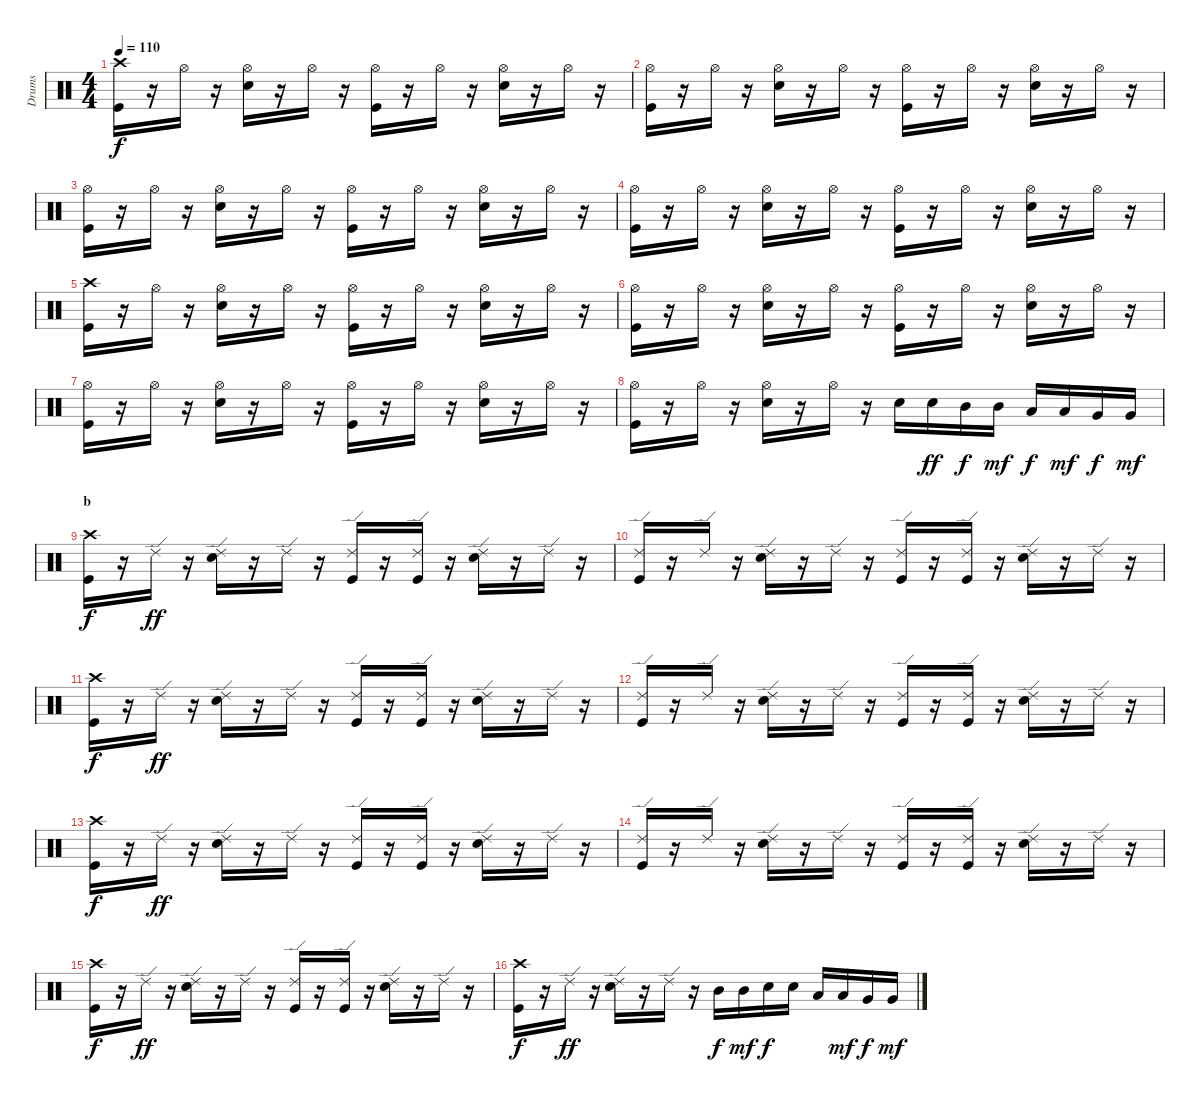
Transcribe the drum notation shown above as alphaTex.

\track ("Drums" "Drums") {instrument percussion}
\staff {score}
\articulation defaults
\ts (4 4)
\tempo 110
\clef neutral
\ks c
("Crash high (hit)" "Kick (hit)").16{dy f} r.16 "Hi-Hat (open)".16 r.16 ("Hi-Hat (open)" "Snare (hit) 2").16 r.16 "Hi-Hat (open)".16 r.16 ("Hi-Hat (open)" "Kick (hit)").16 r.16 "Hi-Hat (open)".16 r.16 ("Hi-Hat (open)" "Snare (hit) 2").16 r.16 "Hi-Hat (open)".16 r.16 |
("Hi-Hat (open)" "Kick (hit)").16 r.16 "Hi-Hat (open)".16 r.16 ("Hi-Hat (open)" "Snare (hit) 2").16 r.16 "Hi-Hat (open)".16 r.16 ("Hi-Hat (open)" "Kick (hit)").16 r.16 "Hi-Hat (open)".16 r.16 ("Hi-Hat (open)" "Snare (hit) 2").16 r.16 "Hi-Hat (open)".16 r.16 |
("Hi-Hat (open)" "Kick (hit)").16 r.16 "Hi-Hat (open)".16 r.16 ("Hi-Hat (open)" "Snare (hit) 2").16 r.16 "Hi-Hat (open)".16 r.16 ("Hi-Hat (open)" "Kick (hit)").16 r.16 "Hi-Hat (open)".16 r.16 ("Hi-Hat (open)" "Snare (hit) 2").16 r.16 "Hi-Hat (open)".16 r.16 |
("Hi-Hat (open)" "Kick (hit)").16 r.16 "Hi-Hat (open)".16 r.16 ("Hi-Hat (open)" "Snare (hit) 2").16 r.16 "Hi-Hat (open)".16 r.16 ("Hi-Hat (open)" "Kick (hit)").16 r.16 "Hi-Hat (open)".16 r.16 ("Hi-Hat (open)" "Snare (hit) 2").16 r.16 "Hi-Hat (open)".16 r.16 |
("Crash high (hit)" "Kick (hit)").16 r.16 "Hi-Hat (open)".16 r.16 ("Hi-Hat (open)" "Snare (hit) 2").16 r.16 "Hi-Hat (open)".16 r.16 ("Hi-Hat (open)" "Kick (hit)").16 r.16 "Hi-Hat (open)".16 r.16 ("Hi-Hat (open)" "Snare (hit) 2").16 r.16 "Hi-Hat (open)".16 r.16 |
("Hi-Hat (open)" "Kick (hit)").16 r.16 "Hi-Hat (open)".16 r.16 ("Hi-Hat (open)" "Snare (hit) 2").16 r.16 "Hi-Hat (open)".16 r.16 ("Hi-Hat (open)" "Kick (hit)").16 r.16 "Hi-Hat (open)".16 r.16 ("Hi-Hat (open)" "Snare (hit) 2").16 r.16 "Hi-Hat (open)".16 r.16 |
("Hi-Hat (open)" "Kick (hit)").16 r.16 "Hi-Hat (open)".16 r.16 ("Hi-Hat (open)" "Snare (hit) 2").16 r.16 "Hi-Hat (open)".16 r.16 ("Hi-Hat (open)" "Kick (hit)").16 r.16 "Hi-Hat (open)".16 r.16 ("Hi-Hat (open)" "Snare (hit) 2").16 r.16 "Hi-Hat (open)".16 r.16 |
("Hi-Hat (open)" "Kick (hit)").16 r.16 "Hi-Hat (open)".16 r.16 ("Hi-Hat (open)" "Snare (hit) 2").16 r.16 "Hi-Hat (open)".16 r.16 "Snare (hit) 2".16 "Snare (hit) 2".16{dy ff} "Mid Tom (hit)".16{dy f} "Mid Tom (hit)".16{dy mf} "Low Tom (hit)".16{dy f} "Low Tom (hit)".16{dy mf} "Very Low Tom (hit)".16{dy f} "Very Low Tom (hit)".16{dy mf} |
\section ("" "b")
("Crash high (hit)" "Kick (hit)").16{dy f} r.16 "Ride (edge) 2".16{dy ff} r.16 ("Ride (edge) 2" "Snare (hit) 2").16 r.16 "Ride (edge) 2".16 r.16 ("Ride (edge) 2" "Kick (hit)").16 r.16 ("Ride (edge) 2" "Kick (hit)").16 r.16 ("Ride (edge) 2" "Snare (hit) 2").16 r.16 "Ride (edge) 2".16 r.16 |
("Ride (edge) 2" "Kick (hit)").16 r.16 "Ride (edge) 2".16 r.16 ("Ride (edge) 2" "Snare (hit) 2").16 r.16 "Ride (edge) 2".16 r.16 ("Ride (edge) 2" "Kick (hit)").16 r.16 ("Ride (edge) 2" "Kick (hit)").16 r.16 ("Ride (edge) 2" "Snare (hit) 2").16 r.16 "Ride (edge) 2".16 r.16 |
("Crash high (hit)" "Kick (hit)").16{dy f} r.16 "Ride (edge) 2".16{dy ff} r.16 ("Ride (edge) 2" "Snare (hit) 2").16 r.16 "Ride (edge) 2".16 r.16 ("Ride (edge) 2" "Kick (hit)").16 r.16 ("Ride (edge) 2" "Kick (hit)").16 r.16 ("Ride (edge) 2" "Snare (hit) 2").16 r.16 "Ride (edge) 2".16 r.16 |
("Ride (edge) 2" "Kick (hit)").16 r.16 "Ride (edge) 2".16 r.16 ("Ride (edge) 2" "Snare (hit) 2").16 r.16 "Ride (edge) 2".16 r.16 ("Ride (edge) 2" "Kick (hit)").16 r.16 ("Ride (edge) 2" "Kick (hit)").16 r.16 ("Ride (edge) 2" "Snare (hit) 2").16 r.16 "Ride (edge) 2".16 r.16 |
("Crash high (hit)" "Kick (hit)").16{dy f} r.16 "Ride (edge) 2".16{dy ff} r.16 ("Ride (edge) 2" "Snare (hit) 2").16 r.16 "Ride (edge) 2".16 r.16 ("Ride (edge) 2" "Kick (hit)").16 r.16 ("Ride (edge) 2" "Kick (hit)").16 r.16 ("Ride (edge) 2" "Snare (hit) 2").16 r.16 "Ride (edge) 2".16 r.16 |
("Ride (edge) 2" "Kick (hit)").16 r.16 "Ride (edge) 2".16 r.16 ("Ride (edge) 2" "Snare (hit) 2").16 r.16 "Ride (edge) 2".16 r.16 ("Ride (edge) 2" "Kick (hit)").16 r.16 ("Ride (edge) 2" "Kick (hit)").16 r.16 ("Ride (edge) 2" "Snare (hit) 2").16 r.16 "Ride (edge) 2".16 r.16 |
("Crash high (hit)" "Kick (hit)").16{dy f} r.16 "Ride (edge) 2".16{dy ff} r.16 ("Ride (edge) 2" "Snare (hit) 2").16 r.16 "Ride (edge) 2".16 r.16 ("Ride (edge) 2" "Kick (hit)").16 r.16 ("Ride (edge) 2" "Kick (hit)").16 r.16 ("Ride (edge) 2" "Snare (hit) 2").16 r.16 "Ride (edge) 2".16 r.16 |
("Crash high (hit)" "Kick (hit)").16{dy f} r.16 "Ride (edge) 2".16{dy ff} r.16 ("Ride (edge) 2" "Snare (hit) 2").16 r.16 "Ride (edge) 2".16 r.16 "Mid Tom (hit)".16{dy f} "Mid Tom (hit)".16{dy mf} "Snare (hit) 2".16{dy f} "Snare (hit) 2".16 "Low Tom (hit)".16 "Low Tom (hit)".16{dy mf} "Very Low Tom (hit)".16{dy f} "Very Low Tom (hit)".16{dy mf}
